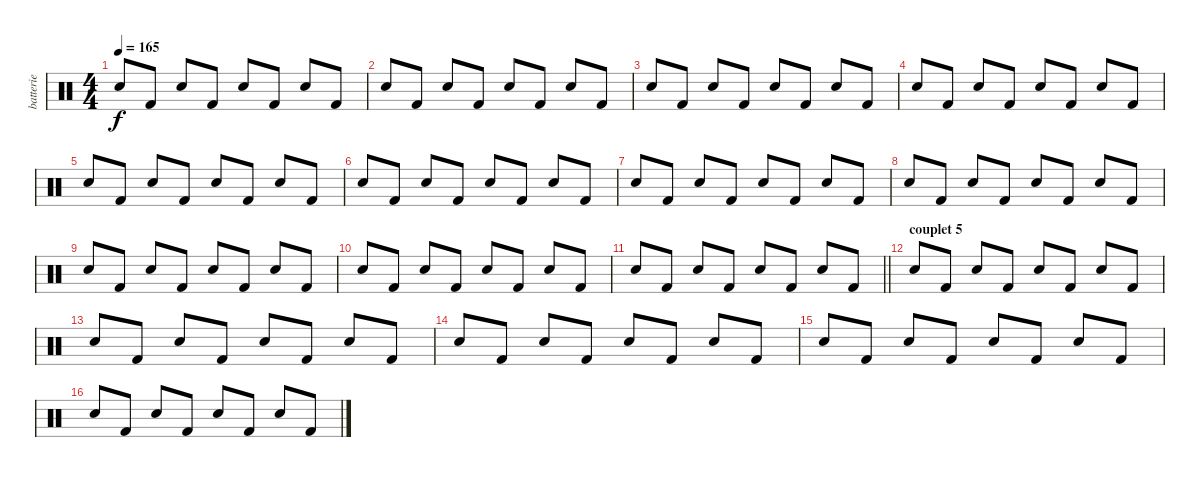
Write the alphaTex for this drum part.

\track ("batterie" "batterie") {instrument percussion}
\staff {score}
\articulation defaults
\ts (4 4)
\tempo 165
\clef neutral
\ks c "Snare (hit) 2".8{dy f} "Kick (hit) 2".8 "Snare (hit) 2".8 "Kick (hit) 2".8 "Snare (hit) 2".8 "Kick (hit) 2".8 "Snare (hit) 2".8 "Kick (hit) 2".8
|
"Snare (hit) 2".8 "Kick (hit) 2".8 "Snare (hit) 2".8 "Kick (hit) 2".8 "Snare (hit) 2".8 "Kick (hit) 2".8 "Snare (hit) 2".8 "Kick (hit) 2".8 |
"Snare (hit) 2".8 "Kick (hit) 2".8 "Snare (hit) 2".8 "Kick (hit) 2".8 "Snare (hit) 2".8 "Kick (hit) 2".8 "Snare (hit) 2".8 "Kick (hit) 2".8 |
"Snare (hit) 2".8 "Kick (hit) 2".8 "Snare (hit) 2".8 "Kick (hit) 2".8 "Snare (hit) 2".8 "Kick (hit) 2".8 "Snare (hit) 2".8 "Kick (hit) 2".8 |
"Snare (hit) 2".8 "Kick (hit) 2".8 "Snare (hit) 2".8 "Kick (hit) 2".8 "Snare (hit) 2".8 "Kick (hit) 2".8 "Snare (hit) 2".8 "Kick (hit) 2".8 |
"Snare (hit) 2".8 "Kick (hit) 2".8 "Snare (hit) 2".8 "Kick (hit) 2".8 "Snare (hit) 2".8 "Kick (hit) 2".8 "Snare (hit) 2".8 "Kick (hit) 2".8 |
"Snare (hit) 2".8 "Kick (hit) 2".8 "Snare (hit) 2".8 "Kick (hit) 2".8 "Snare (hit) 2".8 "Kick (hit) 2".8 "Snare (hit) 2".8 "Kick (hit) 2".8 |
"Snare (hit) 2".8 "Kick (hit) 2".8 "Snare (hit) 2".8 "Kick (hit) 2".8 "Snare (hit) 2".8 "Kick (hit) 2".8 "Snare (hit) 2".8 "Kick (hit) 2".8 |
"Snare (hit) 2".8 "Kick (hit) 2".8 "Snare (hit) 2".8 "Kick (hit) 2".8 "Snare (hit) 2".8 "Kick (hit) 2".8 "Snare (hit) 2".8 "Kick (hit) 2".8 |
"Snare (hit) 2".8 "Kick (hit) 2".8 "Snare (hit) 2".8 "Kick (hit) 2".8 "Snare (hit) 2".8 "Kick (hit) 2".8 "Snare (hit) 2".8 "Kick (hit) 2".8 |
\barLineRight lightlight "Snare (hit) 2".8 "Kick (hit) 2".8 "Snare (hit) 2".8 "Kick (hit) 2".8 "Snare (hit) 2".8 "Kick (hit) 2".8 "Snare (hit) 2".8 "Kick (hit) 2".8
|
\section ("" "couplet 5")
"Snare (hit) 2".8 "Kick (hit) 2".8 "Snare (hit) 2".8 "Kick (hit) 2".8 "Snare (hit) 2".8 "Kick (hit) 2".8 "Snare (hit) 2".8 "Kick (hit) 2".8 |
"Snare (hit) 2".8 "Kick (hit) 2".8 "Snare (hit) 2".8 "Kick (hit) 2".8 "Snare (hit) 2".8 "Kick (hit) 2".8 "Snare (hit) 2".8 "Kick (hit) 2".8 |
"Snare (hit) 2".8 "Kick (hit) 2".8 "Snare (hit) 2".8 "Kick (hit) 2".8 "Snare (hit) 2".8 "Kick (hit) 2".8 "Snare (hit) 2".8 "Kick (hit) 2".8 |
"Snare (hit) 2".8 "Kick (hit) 2".8 "Snare (hit) 2".8 "Kick (hit) 2".8 "Snare (hit) 2".8 "Kick (hit) 2".8 "Snare (hit) 2".8 "Kick (hit) 2".8 |
"Snare (hit) 2".8 "Kick (hit) 2".8 "Snare (hit) 2".8 "Kick (hit) 2".8 "Snare (hit) 2".8 "Kick (hit) 2".8 "Snare (hit) 2".8 "Kick (hit) 2".8
